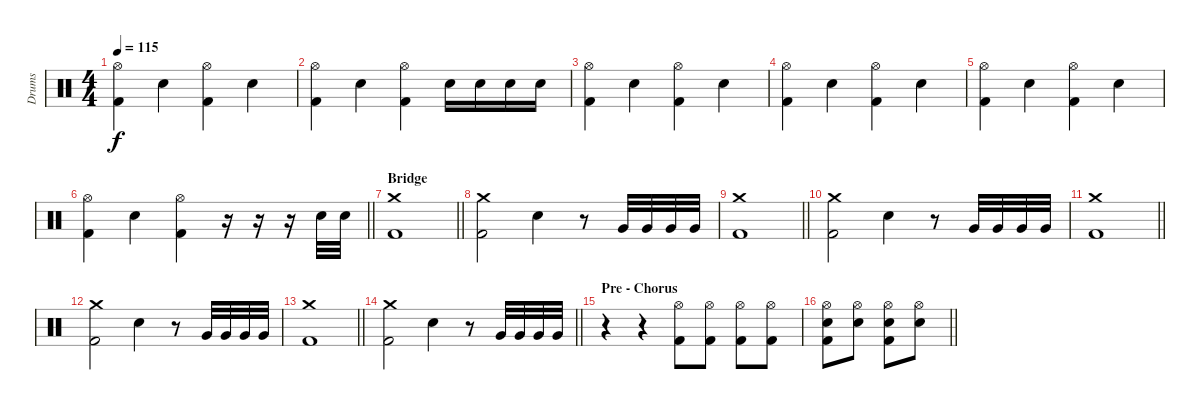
\track ("Drums" "Drums") {instrument percussion}
\staff {score}
\articulation defaults
\ts (4 4)
\tempo 115
\clef neutral
\ks c
("Hi-Hat (open)" "Kick (hit) 2").4{dy f} "Electric Snare (hit)".4 ("Hi-Hat (open)" "Kick (hit) 2").4 "Electric Snare (hit)".4 |
("Hi-Hat (open)" "Kick (hit) 2").4 "Electric Snare (hit)".4 ("Hi-Hat (open)" "Kick (hit) 2").4 "Electric Snare (hit)".16 "Electric Snare (hit)".16 "Electric Snare (hit)".16 "Electric Snare (hit)".16 |
("Hi-Hat (open)" "Kick (hit) 2").4 "Electric Snare (hit)".4 ("Hi-Hat (open)" "Kick (hit) 2").4 "Electric Snare (hit)".4 |
("Hi-Hat (open)" "Kick (hit) 2").4 "Electric Snare (hit)".4 ("Hi-Hat (open)" "Kick (hit) 2").4 "Electric Snare (hit)".4 |
("Hi-Hat (open)" "Kick (hit) 2").4 "Electric Snare (hit)".4 ("Hi-Hat (open)" "Kick (hit) 2").4 "Electric Snare (hit)".4 |
\barLineRight lightlight
("Hi-Hat (open)" "Kick (hit) 2").4 "Electric Snare (hit)".4 ("Hi-Hat (open)" "Kick (hit) 2").4 r.16 r.16 r.16 "Electric Snare (hit)".32 "Electric Snare (hit)".32 |
\section ("" "Bridge")
\barLineRight lightlight
("Crash medium (hit)" "Kick (hit) 2").1 |
("Crash medium (hit)" "Kick (hit) 2").2 "Electric Snare (hit)".4 r.8 "Very Low Tom (hit)".32 "Very Low Tom (hit)".32 "Very Low Tom (hit)".32 "Very Low Tom (hit)".32 |
\barLineRight lightlight
("Crash medium (hit)" "Kick (hit) 2").1 |
("Crash medium (hit)" "Kick (hit) 2").2 "Electric Snare (hit)".4 r.8 "Very Low Tom (hit)".32 "Very Low Tom (hit)".32 "Very Low Tom (hit)".32 "Very Low Tom (hit)".32 |
\barLineRight lightlight
("Crash medium (hit)" "Kick (hit) 2").1 |
("Crash medium (hit)" "Kick (hit) 2").2 "Electric Snare (hit)".4 r.8 "Very Low Tom (hit)".32 "Very Low Tom (hit)".32 "Very Low Tom (hit)".32 "Very Low Tom (hit)".32 |
\barLineRight lightlight
("Crash medium (hit)" "Kick (hit) 2").1 |
\barLineRight lightlight
("Crash medium (hit)" "Kick (hit) 2").2 "Electric Snare (hit)".4 r.8 "Very Low Tom (hit)".32 "Very Low Tom (hit)".32 "Very Low Tom (hit)".32 "Very Low Tom (hit)".32 |
\section ("" "Pre - Chorus")
r.4 r.4 ("Hi-Hat (open)" "Kick (hit) 2").8 ("Hi-Hat (open)" "Kick (hit) 2").8 ("Hi-Hat (open)" "Kick (hit) 2").8 ("Hi-Hat (open)" "Kick (hit) 2").8 |
\barLineRight lightlight
("Hi-Hat (open)" "Electric Snare (hit)" "Kick (hit) 2").8 ("Hi-Hat (open)" "Electric Snare (hit)").8 ("Hi-Hat (open)" "Electric Snare (hit)" "Kick (hit) 2").8 ("Hi-Hat (open)" "Electric Snare (hit)").8
